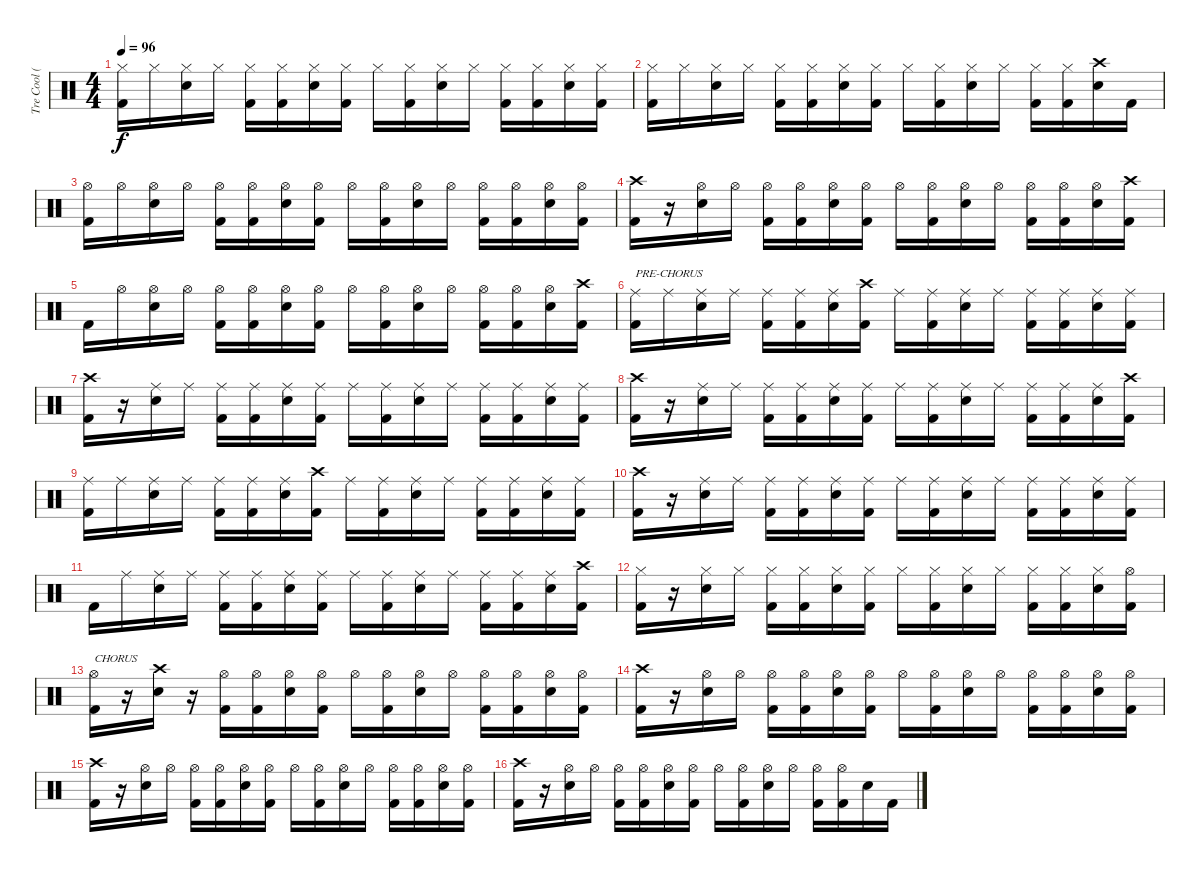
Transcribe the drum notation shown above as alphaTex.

\track ("Tre Cool (Drums)" "Tre Cool (") {instrument percussion}
\staff {score}
\articulation defaults
\ts (4 4)
\tempo 96
\clef neutral
\ks c
("Hi-Hat (closed)" "Kick (hit) 2").16{dy f} "Hi-Hat (closed)".16 ("Hi-Hat (closed)" "Electric Snare (hit)").16 "Hi-Hat (closed)".16 ("Hi-Hat (closed)" "Kick (hit) 2").16 ("Hi-Hat (closed)" "Kick (hit) 2").16 ("Hi-Hat (closed)" "Electric Snare (hit)").16 ("Hi-Hat (closed)" "Kick (hit) 2").16 "Hi-Hat (closed)".16 ("Hi-Hat (closed)" "Kick (hit) 2").16 ("Hi-Hat (closed)" "Electric Snare (hit)").16 "Hi-Hat (closed)".16 ("Hi-Hat (closed)" "Kick (hit) 2").16 ("Hi-Hat (closed)" "Kick (hit) 2").16 ("Hi-Hat (closed)" "Electric Snare (hit)").16 ("Hi-Hat (closed)" "Kick (hit) 2").16 |
("Hi-Hat (closed)" "Kick (hit) 2").16 "Hi-Hat (closed)".16 ("Hi-Hat (closed)" "Electric Snare (hit)").16 "Hi-Hat (closed)".16 ("Hi-Hat (closed)" "Kick (hit) 2").16 ("Hi-Hat (closed)" "Kick (hit) 2").16 ("Hi-Hat (closed)" "Electric Snare (hit)").16 ("Hi-Hat (closed)" "Kick (hit) 2").16 "Hi-Hat (closed)".16 ("Hi-Hat (closed)" "Kick (hit) 2").16 ("Hi-Hat (closed)" "Electric Snare (hit)").16 "Hi-Hat (closed)".16 ("Hi-Hat (closed)" "Kick (hit) 2").16 ("Hi-Hat (closed)" "Kick (hit) 2").16 ("Crash high (hit)" "Electric Snare (hit)").16 "Kick (hit) 2".16 |
("Hi-Hat (open)" "Kick (hit) 2").16 "Hi-Hat (open)".16 ("Hi-Hat (open)" "Electric Snare (hit)").16 "Hi-Hat (open)".16 ("Hi-Hat (open)" "Kick (hit) 2").16 ("Hi-Hat (open)" "Kick (hit) 2").16 ("Hi-Hat (open)" "Electric Snare (hit)").16 ("Hi-Hat (open)" "Kick (hit) 2").16 "Hi-Hat (open)".16 ("Hi-Hat (open)" "Kick (hit) 2").16 ("Hi-Hat (open)" "Electric Snare (hit)").16 "Hi-Hat (open)".16 ("Hi-Hat (open)" "Kick (hit) 2").16 ("Hi-Hat (open)" "Kick (hit) 2").16 ("Hi-Hat (open)" "Electric Snare (hit)").16 ("Hi-Hat (open)" "Kick (hit) 2").16 |
("Crash high (hit)" "Kick (hit) 2").16 r.16 ("Hi-Hat (open)" "Electric Snare (hit)").16 "Hi-Hat (open)".16 ("Hi-Hat (open)" "Kick (hit) 2").16 ("Hi-Hat (open)" "Kick (hit) 2").16 ("Hi-Hat (open)" "Electric Snare (hit)").16 ("Hi-Hat (open)" "Kick (hit) 2").16 "Hi-Hat (open)".16 ("Hi-Hat (open)" "Kick (hit) 2").16 ("Hi-Hat (open)" "Electric Snare (hit)").16 "Hi-Hat (open)".16 ("Hi-Hat (open)" "Kick (hit) 2").16 ("Hi-Hat (open)" "Kick (hit) 2").16 ("Hi-Hat (open)" "Electric Snare (hit)").16 ("Crash high (hit)" "Kick (hit) 2").16 |
"Kick (hit) 2".16 "Hi-Hat (open)".16 ("Hi-Hat (open)" "Electric Snare (hit)").16 "Hi-Hat (open)".16 ("Hi-Hat (open)" "Kick (hit) 2").16 ("Hi-Hat (open)" "Kick (hit) 2").16 ("Hi-Hat (open)" "Electric Snare (hit)").16 ("Hi-Hat (open)" "Kick (hit) 2").16 "Hi-Hat (open)".16 ("Hi-Hat (open)" "Kick (hit) 2").16 ("Hi-Hat (open)" "Electric Snare (hit)").16 "Hi-Hat (open)".16 ("Hi-Hat (open)" "Kick (hit) 2").16 ("Hi-Hat (open)" "Kick (hit) 2").16 ("Hi-Hat (open)" "Electric Snare (hit)").16 ("Crash high (hit)" "Kick (hit) 2").16 |
("Ride (middle)" "Kick (hit) 2").16{txt "PRE-CHORUS"} "Ride (middle)".16 ("Ride (middle)" "Electric Snare (hit)").16 "Ride (middle)".16 ("Ride (middle)" "Kick (hit) 2").16 ("Ride (middle)" "Kick (hit) 2").16 ("Ride (middle)" "Electric Snare (hit)").16 ("Crash high (hit)" "Kick (hit) 2").16 "Ride (middle)".16 ("Ride (middle)" "Kick (hit) 2").16 ("Ride (middle)" "Electric Snare (hit)").16 "Ride (middle)".16 ("Ride (middle)" "Kick (hit) 2").16 ("Ride (middle)" "Kick (hit) 2").16 ("Ride (middle)" "Electric Snare (hit)").16 ("Ride (middle)" "Kick (hit) 2").16 |
("Crash high (hit)" "Kick (hit) 2").16 r.16 ("Ride (middle)" "Electric Snare (hit)").16 "Ride (middle)".16 ("Ride (middle)" "Kick (hit) 2").16 ("Ride (middle)" "Kick (hit) 2").16 ("Ride (middle)" "Electric Snare (hit)").16 ("Ride (middle)" "Kick (hit) 2").16 "Ride (middle)".16 ("Ride (middle)" "Kick (hit) 2").16 ("Ride (middle)" "Electric Snare (hit)").16 "Ride (middle)".16 ("Ride (middle)" "Kick (hit) 2").16 ("Ride (middle)" "Kick (hit) 2").16 ("Ride (middle)" "Electric Snare (hit)").16 ("Ride (middle)" "Kick (hit) 2").16 |
("Crash high (hit)" "Kick (hit) 2").16 r.16 ("Ride (middle)" "Electric Snare (hit)").16 "Ride (middle)".16 ("Ride (middle)" "Kick (hit) 2").16 ("Ride (middle)" "Kick (hit) 2").16 ("Ride (middle)" "Electric Snare (hit)").16 ("Ride (middle)" "Kick (hit) 2").16 "Ride (middle)".16 ("Ride (middle)" "Kick (hit) 2").16 ("Ride (middle)" "Electric Snare (hit)").16 "Ride (middle)".16 ("Ride (middle)" "Kick (hit) 2").16 ("Ride (middle)" "Kick (hit) 2").16 ("Ride (middle)" "Electric Snare (hit)").16 ("Crash high (hit)" "Kick (hit) 2").16 |
("Ride (middle)" "Kick (hit) 2").16 "Ride (middle)".16 ("Ride (middle)" "Electric Snare (hit)").16 "Ride (middle)".16 ("Ride (middle)" "Kick (hit) 2").16 ("Ride (middle)" "Kick (hit) 2").16 ("Ride (middle)" "Electric Snare (hit)").16 ("Crash high (hit)" "Kick (hit) 2").16 "Ride (middle)".16 ("Ride (middle)" "Kick (hit) 2").16 ("Ride (middle)" "Electric Snare (hit)").16 "Ride (middle)".16 ("Ride (middle)" "Kick (hit) 2").16 ("Ride (middle)" "Kick (hit) 2").16 ("Ride (middle)" "Electric Snare (hit)").16 ("Ride (middle)" "Kick (hit) 2").16 |
("Crash high (hit)" "Kick (hit) 2").16 r.16 ("Ride (middle)" "Electric Snare (hit)").16 "Ride (middle)".16 ("Ride (middle)" "Kick (hit) 2").16 ("Ride (middle)" "Kick (hit) 2").16 ("Ride (middle)" "Electric Snare (hit)").16 ("Ride (middle)" "Kick (hit) 2").16 "Ride (middle)".16 ("Ride (middle)" "Kick (hit) 2").16 ("Ride (middle)" "Electric Snare (hit)").16 "Ride (middle)".16 ("Ride (middle)" "Kick (hit) 2").16 ("Ride (middle)" "Kick (hit) 2").16 ("Ride (middle)" "Electric Snare (hit)").16 ("Ride (middle)" "Kick (hit) 2").16 |
"Kick (hit) 2".16 "Ride (middle)".16 ("Ride (middle)" "Electric Snare (hit)").16 "Ride (middle)".16 ("Ride (middle)" "Kick (hit) 2").16 ("Ride (middle)" "Kick (hit) 2").16 ("Ride (middle)" "Electric Snare (hit)").16 ("Ride (middle)" "Kick (hit) 2").16 "Ride (middle)".16 ("Ride (middle)" "Kick (hit) 2").16 ("Ride (middle)" "Electric Snare (hit)").16 "Ride (middle)".16 ("Ride (middle)" "Kick (hit) 2").16 ("Ride (middle)" "Kick (hit) 2").16 ("Ride (middle)" "Electric Snare (hit)").16 ("Crash high (hit)" "Kick (hit) 2").16 |
("Hi-Hat (closed)" "Kick (hit) 2").16 r.16 ("Hi-Hat (closed)" "Electric Snare (hit)").16 "Hi-Hat (closed)".16 ("Hi-Hat (closed)" "Kick (hit) 2").16 ("Hi-Hat (closed)" "Kick (hit) 2").16 ("Hi-Hat (closed)" "Electric Snare (hit)").16 ("Hi-Hat (closed)" "Kick (hit) 2").16 "Hi-Hat (closed)".16 ("Hi-Hat (closed)" "Kick (hit) 2").16 ("Hi-Hat (closed)" "Electric Snare (hit)").16 "Hi-Hat (closed)".16 ("Hi-Hat (closed)" "Kick (hit) 2").16 ("Hi-Hat (closed)" "Kick (hit) 2").16 ("Hi-Hat (closed)" "Electric Snare (hit)").16 ("Hi-Hat (open)" "Kick (hit) 2").16 |
("Hi-Hat (open)" "Kick (hit) 2").16{txt "CHORUS"} r.16 ("Crash high (hit)" "Electric Snare (hit)").16 r.16 ("Hi-Hat (open)" "Kick (hit) 2").16 ("Hi-Hat (open)" "Kick (hit) 2").16 ("Hi-Hat (open)" "Electric Snare (hit)").16 ("Hi-Hat (open)" "Kick (hit) 2").16 "Hi-Hat (open)".16 ("Hi-Hat (open)" "Kick (hit) 2").16 ("Hi-Hat (open)" "Electric Snare (hit)").16 "Hi-Hat (open)".16 ("Hi-Hat (open)" "Kick (hit) 2").16 ("Hi-Hat (open)" "Kick (hit) 2").16 ("Hi-Hat (open)" "Electric Snare (hit)").16 ("Hi-Hat (open)" "Kick (hit) 2").16 |
("Crash high (hit)" "Kick (hit) 2").16 r.16 ("Hi-Hat (open)" "Electric Snare (hit)").16 "Hi-Hat (open)".16 ("Hi-Hat (open)" "Kick (hit) 2").16 ("Hi-Hat (open)" "Kick (hit) 2").16 ("Hi-Hat (open)" "Electric Snare (hit)").16 ("Hi-Hat (open)" "Kick (hit) 2").16 "Hi-Hat (open)".16 ("Hi-Hat (open)" "Kick (hit) 2").16 ("Hi-Hat (open)" "Electric Snare (hit)").16 "Hi-Hat (open)".16 ("Hi-Hat (open)" "Kick (hit) 2").16 ("Hi-Hat (open)" "Kick (hit) 2").16 ("Hi-Hat (open)" "Electric Snare (hit)").16 ("Hi-Hat (open)" "Kick (hit) 2").16 |
("Crash high (hit)" "Kick (hit) 2").16 r.16 ("Hi-Hat (open)" "Electric Snare (hit)").16 "Hi-Hat (open)".16 ("Hi-Hat (open)" "Kick (hit) 2").16 ("Hi-Hat (open)" "Kick (hit) 2").16 ("Hi-Hat (open)" "Electric Snare (hit)").16 ("Hi-Hat (open)" "Kick (hit) 2").16 "Hi-Hat (open)".16 ("Hi-Hat (open)" "Kick (hit) 2").16 ("Hi-Hat (open)" "Electric Snare (hit)").16 "Hi-Hat (open)".16 ("Hi-Hat (open)" "Kick (hit) 2").16 ("Hi-Hat (open)" "Kick (hit) 2").16 ("Hi-Hat (open)" "Electric Snare (hit)").16 ("Hi-Hat (open)" "Kick (hit) 2").16 |
("Crash high (hit)" "Kick (hit) 2").16 r.16 ("Hi-Hat (open)" "Electric Snare (hit)").16 "Hi-Hat (open)".16 ("Hi-Hat (open)" "Kick (hit) 2").16 ("Hi-Hat (open)" "Kick (hit) 2").16 ("Hi-Hat (open)" "Electric Snare (hit)").16 ("Hi-Hat (open)" "Kick (hit) 2").16 "Hi-Hat (open)".16 ("Hi-Hat (open)" "Kick (hit) 2").16 ("Hi-Hat (open)" "Electric Snare (hit)").16 "Hi-Hat (open)".16 ("Hi-Hat (open)" "Kick (hit) 2").16 ("Hi-Hat (open)" "Kick (hit) 2").16 "Electric Snare (hit)".16 "Kick (hit) 2".16
